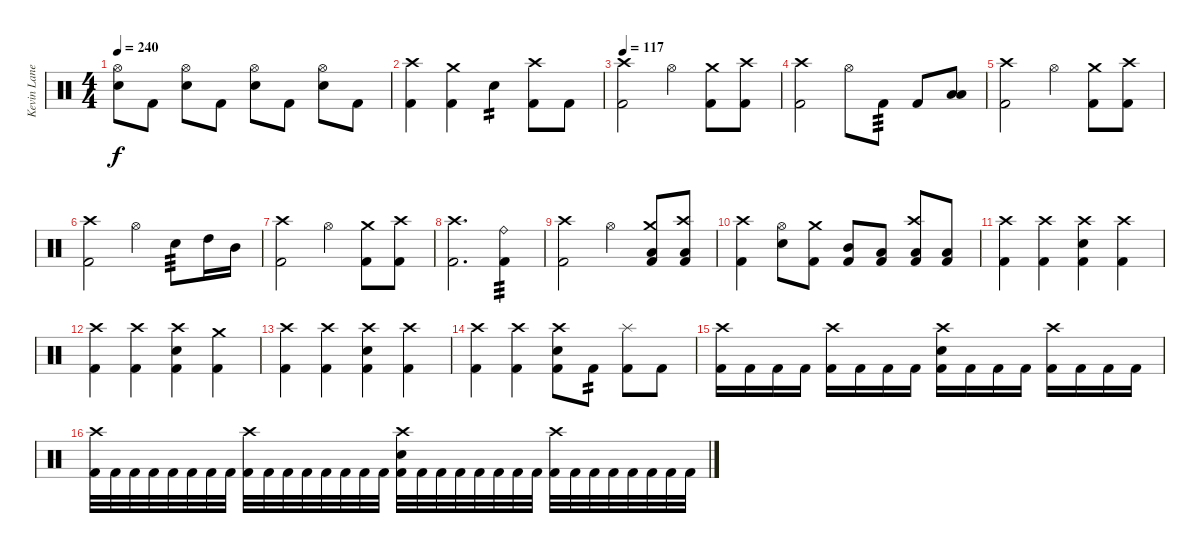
\track ("Kevin Lane" "Kevin Lane") {instrument percussion}
\staff {score}
\articulation defaults
\ts (4 4)
\tempo 240
\clef neutral
\ks c
("Hi-Hat (open)" "Electric Snare (hit)").8{dy f} "Kick (hit) 2".8 ("Hi-Hat (open)" "Electric Snare (hit)").8 "Kick (hit) 2".8 ("Hi-Hat (open)" "Electric Snare (hit)").8 "Kick (hit) 2".8 ("Hi-Hat (open)" "Electric Snare (hit)").8 "Kick (hit) 2".8 |
("Crash high (hit)" "Kick (hit) 2").4 ("Crash medium (hit)" "Kick (hit) 2").4 "Electric Snare (hit)".4{tp 2} ("Crash high (hit)" "Kick (hit) 2").8 "Kick (hit) 2".8 |
\tempo 117
("Crash high (hit)" "Kick (hit) 2").2 "Hi-Hat (open)".4 ("Crash medium (hit)" "Kick (hit) 2").8 ("Crash high (hit)" "Kick (hit) 2").8 |
("Crash high (hit)" "Kick (hit) 2").2 "Hi-Hat (open)".8 "Kick (hit) 2".8{tp 3} "Kick (hit) 2".8 ("Low Tom (hit)" "Low Floor Tom (hit)").8 |
("Crash high (hit)" "Kick (hit) 2").2 "Hi-Hat (open)".4 ("Crash medium (hit)" "Kick (hit) 2").8 ("Crash high (hit)" "Kick (hit) 2").8 |
("Crash high (hit)" "Kick (hit) 2").2 "Hi-Hat (open)".4 "Electric Snare (hit)".8{tp 3} "High Tom (hit)".16 "Mid Tom (hit)".16 |
("Crash high (hit)" "Kick (hit) 2").2 "Hi-Hat (open)".4 ("Crash medium (hit)" "Kick (hit) 2").8 ("Crash high (hit)" "Kick (hit) 2").8 |
("Crash high (hit)" "Kick (hit) 2").2{d} ("Ride (bell)" "Kick (hit) 2").4{tp 3} |
("Crash high (hit)" "Kick (hit) 2").2 "Hi-Hat (open)".4 ("Crash medium (hit)" "Low Floor Tom (hit)" "Kick (hit) 2").8 ("Crash high (hit)" "Low Floor Tom (hit)" "Kick (hit) 2").8 |
("Crash high (hit)" "Kick (hit) 2").4 ("Electric Snare (hit)" "Hi-Hat (open)").8 ("Crash medium (hit)" "Kick (hit) 2").8 ("Mid Tom (hit)" "Kick (hit) 2").8 ("Low Floor Tom (hit)" "Kick (hit) 2").8 ("Crash high (hit)" "Low Tom (hit)" "Kick (hit) 2").8 ("Low Floor Tom (hit)" "Kick (hit) 2").8 |
("Crash high (hit)" "Kick (hit) 2").4 ("Crash high (hit)" "Kick (hit) 2").4 ("Crash high (hit)" "Electric Snare (hit)" "Kick (hit) 2").4 ("Crash high (hit)" "Kick (hit) 2").4 |
("Crash high (hit)" "Kick (hit) 2").4 ("Crash high (hit)" "Kick (hit) 2").4 ("Crash high (hit)" "Electric Snare (hit)" "Kick (hit) 2").4 ("Crash medium (hit)" "Kick (hit) 2").4 |
("Crash high (hit)" "Kick (hit) 2").4 ("Crash high (hit)" "Kick (hit) 2").4 ("Crash high (hit)" "Electric Snare (hit)" "Kick (hit) 2").4 ("Crash high (hit)" "Kick (hit) 2").4 |
("Crash high (hit)" "Kick (hit) 2").4 ("Crash high (hit)" "Kick (hit) 2").4 ("Crash high (hit)" "Electric Snare (hit)" "Kick (hit) 2").8 "Kick (hit) 2".8{tp 2} ("Splash (hit)" "Kick (hit) 2").8 "Kick (hit) 2".8 |
("Crash high (hit)" "Kick (hit) 2").16 "Kick (hit) 2".16 "Kick (hit) 2".16 "Kick (hit) 2".16 ("Crash high (hit)" "Kick (hit) 2").16 "Kick (hit) 2".16 "Kick (hit) 2".16 "Kick (hit) 2".16 ("Crash high (hit)" "Electric Snare (hit)" "Kick (hit) 2").16 "Kick (hit) 2".16 "Kick (hit) 2".16 "Kick (hit) 2".16 ("Crash high (hit)" "Kick (hit) 2").16 "Kick (hit) 2".16 "Kick (hit) 2".16 "Kick (hit) 2".16 |
("Crash high (hit)" "Kick (hit) 2").32 "Kick (hit) 2".32 "Kick (hit) 2".32 "Kick (hit) 2".32 "Kick (hit) 2".32 "Kick (hit) 2".32 "Kick (hit) 2".32 "Kick (hit) 2".32 ("Crash high (hit)" "Kick (hit) 2").32 "Kick (hit) 2".32 "Kick (hit) 2".32 "Kick (hit) 2".32 "Kick (hit) 2".32 "Kick (hit) 2".32 "Kick (hit) 2".32 "Kick (hit) 2".32 ("Crash high (hit)" "Electric Snare (hit)" "Kick (hit) 2").32 "Kick (hit) 2".32 "Kick (hit) 2".32 "Kick (hit) 2".32 "Kick (hit) 2".32 "Kick (hit) 2".32 "Kick (hit) 2".32 "Kick (hit) 2".32 ("Crash high (hit)" "Kick (hit) 2").32 "Kick (hit) 2".32 "Kick (hit) 2".32 "Kick (hit) 2".32 "Kick (hit) 2".32 "Kick (hit) 2".32 "Kick (hit) 2".32 "Kick (hit) 2".32
